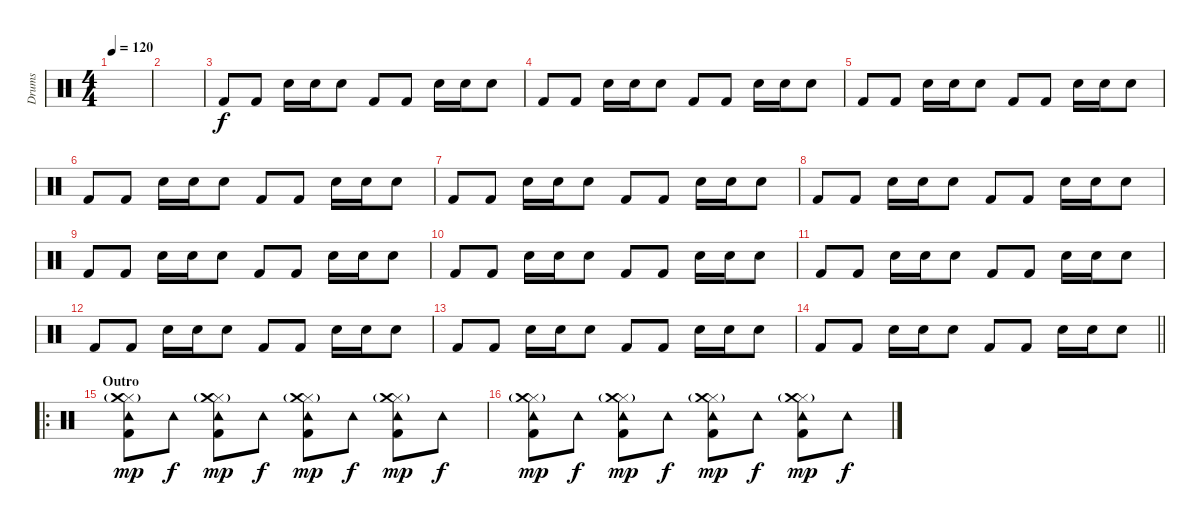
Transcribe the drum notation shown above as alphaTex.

\track ("Drums" "Drums") {instrument percussion}
\staff {score}
\articulation defaults
\ts (4 4)
\tempo 120
\clef neutral
\ks c
|
|
"Kick (hit) 2".8 "Kick (hit) 2".8 "Snare (hit) 2".16 "Snare (hit) 2".16 "Snare (hit) 2".8 "Kick (hit) 2".8 "Kick (hit) 2".8 "Snare (hit) 2".16 "Snare (hit) 2".16 "Snare (hit) 2".8 |
"Kick (hit) 2".8 "Kick (hit) 2".8 "Snare (hit) 2".16 "Snare (hit) 2".16 "Snare (hit) 2".8 "Kick (hit) 2".8 "Kick (hit) 2".8 "Snare (hit) 2".16 "Snare (hit) 2".16 "Snare (hit) 2".8 |
"Kick (hit) 2".8 "Kick (hit) 2".8 "Snare (hit) 2".16 "Snare (hit) 2".16 "Snare (hit) 2".8 "Kick (hit) 2".8 "Kick (hit) 2".8 "Snare (hit) 2".16 "Snare (hit) 2".16 "Snare (hit) 2".8 |
"Kick (hit) 2".8 "Kick (hit) 2".8 "Snare (hit) 2".16 "Snare (hit) 2".16 "Snare (hit) 2".8 "Kick (hit) 2".8 "Kick (hit) 2".8 "Snare (hit) 2".16 "Snare (hit) 2".16 "Snare (hit) 2".8 |
"Kick (hit) 2".8 "Kick (hit) 2".8 "Snare (hit) 2".16 "Snare (hit) 2".16 "Snare (hit) 2".8 "Kick (hit) 2".8 "Kick (hit) 2".8 "Snare (hit) 2".16 "Snare (hit) 2".16 "Snare (hit) 2".8 |
"Kick (hit) 2".8 "Kick (hit) 2".8 "Snare (hit) 2".16 "Snare (hit) 2".16 "Snare (hit) 2".8 "Kick (hit) 2".8 "Kick (hit) 2".8 "Snare (hit) 2".16 "Snare (hit) 2".16 "Snare (hit) 2".8 |
"Kick (hit) 2".8 "Kick (hit) 2".8 "Snare (hit) 2".16 "Snare (hit) 2".16 "Snare (hit) 2".8 "Kick (hit) 2".8 "Kick (hit) 2".8 "Snare (hit) 2".16 "Snare (hit) 2".16 "Snare (hit) 2".8 |
"Kick (hit) 2".8 "Kick (hit) 2".8 "Snare (hit) 2".16 "Snare (hit) 2".16 "Snare (hit) 2".8 "Kick (hit) 2".8 "Kick (hit) 2".8 "Snare (hit) 2".16 "Snare (hit) 2".16 "Snare (hit) 2".8 |
"Kick (hit) 2".8 "Kick (hit) 2".8 "Snare (hit) 2".16 "Snare (hit) 2".16 "Snare (hit) 2".8 "Kick (hit) 2".8 "Kick (hit) 2".8 "Snare (hit) 2".16 "Snare (hit) 2".16 "Snare (hit) 2".8 |
"Kick (hit) 2".8 "Kick (hit) 2".8 "Snare (hit) 2".16 "Snare (hit) 2".16 "Snare (hit) 2".8 "Kick (hit) 2".8 "Kick (hit) 2".8 "Snare (hit) 2".16 "Snare (hit) 2".16 "Snare (hit) 2".8 |
"Kick (hit) 2".8 "Kick (hit) 2".8 "Snare (hit) 2".16 "Snare (hit) 2".16 "Snare (hit) 2".8 "Kick (hit) 2".8 "Kick (hit) 2".8 "Snare (hit) 2".16 "Snare (hit) 2".16 "Snare (hit) 2".8 |
\barLineRight lightlight "Kick (hit) 2".8 "Kick (hit) 2".8 "Snare (hit) 2".16 "Snare (hit) 2".16 "Snare (hit) 2".8 "Kick (hit) 2".8 "Kick (hit) 2".8 "Snare (hit) 2".16 "Snare (hit) 2".16 "Snare (hit) 2".8
|
\ro
\section ("" "Outro")
("Hi-Hat (closed)" "Tambourine (hit)" "Crash medium (hit)"{g} "Kick (hit) 2").8{dy mp volume 16} "Tambourine (hit)".8{dy f} ("Hi-Hat (closed)" "Tambourine (hit)" "Crash medium (hit)"{g} "Kick (hit) 2").8{dy mp} "Tambourine (hit)".8{dy f} ("Hi-Hat (closed)" "Tambourine (hit)" "Crash medium (hit)"{g} "Kick (hit) 2").8{dy mp} "Tambourine (hit)".8{dy f} ("Hi-Hat (closed)" "Tambourine (hit)" "Crash medium (hit)"{g} "Kick (hit) 2").8{dy mp} "Tambourine (hit)".8{dy f} |
("Hi-Hat (closed)" "Tambourine (hit)" "Crash medium (hit)"{g} "Kick (hit) 2").8{dy mp} "Tambourine (hit)".8{dy f} ("Hi-Hat (closed)" "Tambourine (hit)" "Crash medium (hit)"{g} "Kick (hit) 2").8{dy mp} "Tambourine (hit)".8{dy f} ("Hi-Hat (closed)" "Tambourine (hit)" "Crash medium (hit)"{g} "Kick (hit) 2").8{dy mp} "Tambourine (hit)".8{dy f} ("Hi-Hat (closed)" "Tambourine (hit)" "Crash medium (hit)"{g} "Kick (hit) 2").8{dy mp} "Tambourine (hit)".8{dy f}
